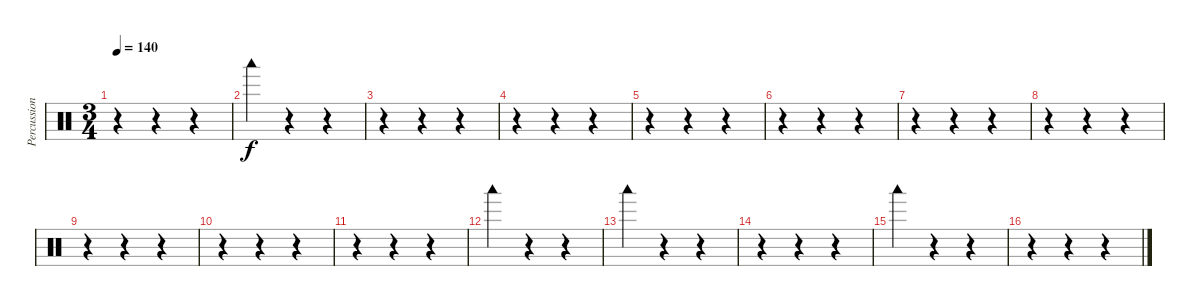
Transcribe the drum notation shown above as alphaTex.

\track ("Percussions" "Percussion") {instrument percussion}
\staff {score}
\articulation defaults
\ts (3 4)
\tempo 140
\clef neutral
\ks c
r.4{dy f} r.4 r.4 |
"Woodblock low (hit)".4 r.4 r.4 |
r.4 r.4 r.4 |
r.4 r.4 r.4 |
r.4 r.4 r.4 |
r.4 r.4 r.4 |
r.4 r.4 r.4 |
r.4 r.4 r.4 |
r.4 r.4 r.4 |
r.4 r.4 r.4 |
r.4 r.4 r.4 |
"Woodblock low (hit)".4 r.4 r.4 |
"Woodblock low (hit)".4 r.4 r.4 |
r.4 r.4 r.4 |
"Woodblock low (hit)".4 r.4 r.4 |
r.4 r.4 r.4
